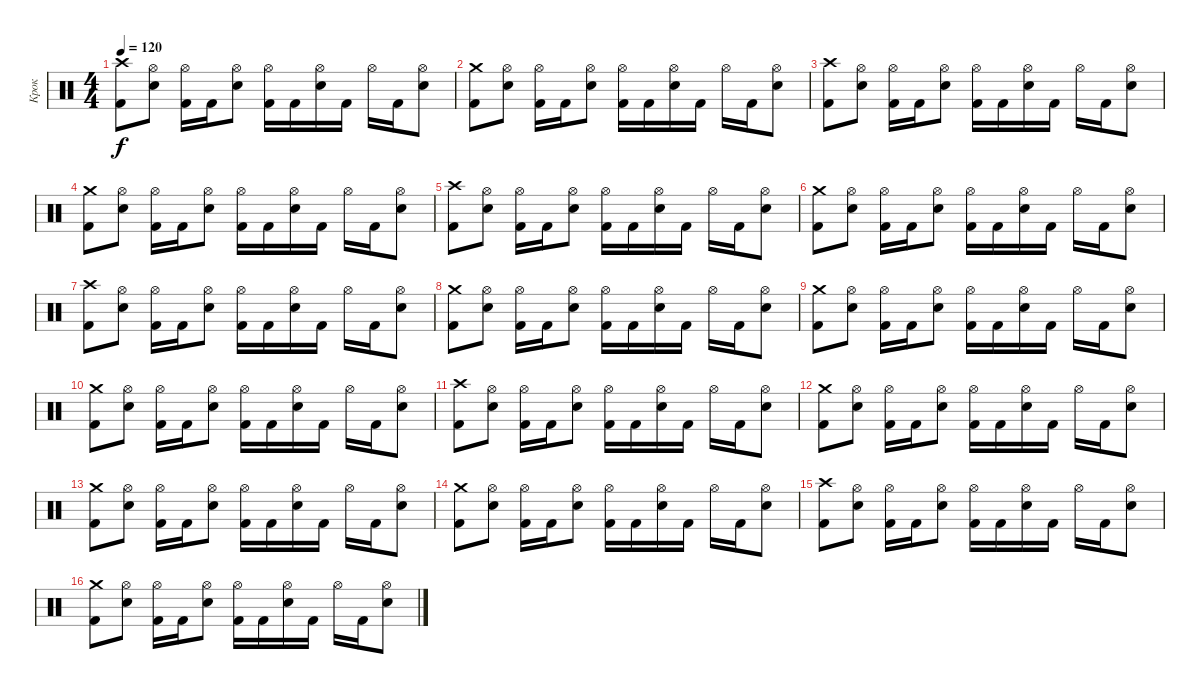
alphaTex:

\track ("Крок" "Крок") {instrument percussion}
\staff {score}
\articulation defaults
\ts (4 4)
\tempo 120
\clef neutral
\ks c
("Crash high (hit)" "Kick (hit) 2").8{dy f} ("Hi-Hat (open)" "Electric Snare (hit)").8 ("Hi-Hat (open)" "Kick (hit) 2").16 "Kick (hit) 2".16 ("Hi-Hat (open)" "Electric Snare (hit)").8 ("Hi-Hat (open)" "Kick (hit) 2").16 "Kick (hit) 2".16 ("Hi-Hat (open)" "Electric Snare (hit)").16 "Kick (hit) 2".16 "Hi-Hat (open)".16 "Kick (hit) 2".16 ("Hi-Hat (open)" "Electric Snare (hit)").8 |
("Crash medium (hit)" "Kick (hit) 2").8 ("Hi-Hat (open)" "Electric Snare (hit)").8 ("Hi-Hat (open)" "Kick (hit) 2").16 "Kick (hit) 2".16 ("Hi-Hat (open)" "Electric Snare (hit)").8 ("Hi-Hat (open)" "Kick (hit) 2").16 "Kick (hit) 2".16 ("Hi-Hat (open)" "Electric Snare (hit)").16 "Kick (hit) 2".16 "Hi-Hat (open)".16 "Kick (hit) 2".16 ("Hi-Hat (open)" "Electric Snare (hit)").8 |
("Crash high (hit)" "Kick (hit) 2").8 ("Hi-Hat (open)" "Electric Snare (hit)").8 ("Hi-Hat (open)" "Kick (hit) 2").16 "Kick (hit) 2".16 ("Hi-Hat (open)" "Electric Snare (hit)").8 ("Hi-Hat (open)" "Kick (hit) 2").16 "Kick (hit) 2".16 ("Hi-Hat (open)" "Electric Snare (hit)").16 "Kick (hit) 2".16 "Hi-Hat (open)".16 "Kick (hit) 2".16 ("Hi-Hat (open)" "Electric Snare (hit)").8 |
("Crash medium (hit)" "Kick (hit) 2").8 ("Hi-Hat (open)" "Electric Snare (hit)").8 ("Hi-Hat (open)" "Kick (hit) 2").16 "Kick (hit) 2".16 ("Hi-Hat (open)" "Electric Snare (hit)").8 ("Hi-Hat (open)" "Kick (hit) 2").16 "Kick (hit) 2".16 ("Hi-Hat (open)" "Electric Snare (hit)").16 "Kick (hit) 2".16 "Hi-Hat (open)".16 "Kick (hit) 2".16 ("Hi-Hat (open)" "Electric Snare (hit)").8 |
("Crash high (hit)" "Kick (hit) 2").8 ("Hi-Hat (open)" "Electric Snare (hit)").8 ("Hi-Hat (open)" "Kick (hit) 2").16 "Kick (hit) 2".16 ("Hi-Hat (open)" "Electric Snare (hit)").8 ("Hi-Hat (open)" "Kick (hit) 2").16 "Kick (hit) 2".16 ("Hi-Hat (open)" "Electric Snare (hit)").16 "Kick (hit) 2".16 "Hi-Hat (open)".16 "Kick (hit) 2".16 ("Hi-Hat (open)" "Electric Snare (hit)").8 |
("Crash medium (hit)" "Kick (hit) 2").8 ("Hi-Hat (open)" "Electric Snare (hit)").8 ("Hi-Hat (open)" "Kick (hit) 2").16 "Kick (hit) 2".16 ("Hi-Hat (open)" "Electric Snare (hit)").8 ("Hi-Hat (open)" "Kick (hit) 2").16 "Kick (hit) 2".16 ("Hi-Hat (open)" "Electric Snare (hit)").16 "Kick (hit) 2".16 "Hi-Hat (open)".16 "Kick (hit) 2".16 ("Hi-Hat (open)" "Electric Snare (hit)").8 |
("Crash high (hit)" "Kick (hit) 2").8 ("Hi-Hat (open)" "Electric Snare (hit)").8 ("Hi-Hat (open)" "Kick (hit) 2").16 "Kick (hit) 2".16 ("Hi-Hat (open)" "Electric Snare (hit)").8 ("Hi-Hat (open)" "Kick (hit) 2").16 "Kick (hit) 2".16 ("Hi-Hat (open)" "Electric Snare (hit)").16 "Kick (hit) 2".16 "Hi-Hat (open)".16 "Kick (hit) 2".16 ("Hi-Hat (open)" "Electric Snare (hit)").8 |
("Crash medium (hit)" "Kick (hit) 2").8 ("Hi-Hat (open)" "Electric Snare (hit)").8 ("Hi-Hat (open)" "Kick (hit) 2").16 "Kick (hit) 2".16 ("Hi-Hat (open)" "Electric Snare (hit)").8 ("Hi-Hat (open)" "Kick (hit) 2").16 "Kick (hit) 2".16 ("Hi-Hat (open)" "Electric Snare (hit)").16 "Kick (hit) 2".16 "Hi-Hat (open)".16 "Kick (hit) 2".16 ("Hi-Hat (open)" "Electric Snare (hit)").8 |
("Crash medium (hit)" "Kick (hit) 2").8 ("Hi-Hat (open)" "Electric Snare (hit)").8 ("Hi-Hat (open)" "Kick (hit) 2").16 "Kick (hit) 2".16 ("Hi-Hat (open)" "Electric Snare (hit)").8 ("Hi-Hat (open)" "Kick (hit) 2").16 "Kick (hit) 2".16 ("Hi-Hat (open)" "Electric Snare (hit)").16 "Kick (hit) 2".16 "Hi-Hat (open)".16 "Kick (hit) 2".16 ("Hi-Hat (open)" "Electric Snare (hit)").8 |
("Crash medium (hit)" "Kick (hit) 2").8 ("Hi-Hat (open)" "Electric Snare (hit)").8 ("Hi-Hat (open)" "Kick (hit) 2").16 "Kick (hit) 2".16 ("Hi-Hat (open)" "Electric Snare (hit)").8 ("Hi-Hat (open)" "Kick (hit) 2").16 "Kick (hit) 2".16 ("Hi-Hat (open)" "Electric Snare (hit)").16 "Kick (hit) 2".16 "Hi-Hat (open)".16 "Kick (hit) 2".16 ("Hi-Hat (open)" "Electric Snare (hit)").8 |
("Crash high (hit)" "Kick (hit) 2").8 ("Hi-Hat (open)" "Electric Snare (hit)").8 ("Hi-Hat (open)" "Kick (hit) 2").16 "Kick (hit) 2".16 ("Hi-Hat (open)" "Electric Snare (hit)").8 ("Hi-Hat (open)" "Kick (hit) 2").16 "Kick (hit) 2".16 ("Hi-Hat (open)" "Electric Snare (hit)").16 "Kick (hit) 2".16 "Hi-Hat (open)".16 "Kick (hit) 2".16 ("Hi-Hat (open)" "Electric Snare (hit)").8 |
("Crash medium (hit)" "Kick (hit) 2").8 ("Hi-Hat (open)" "Electric Snare (hit)").8 ("Hi-Hat (open)" "Kick (hit) 2").16 "Kick (hit) 2".16 ("Hi-Hat (open)" "Electric Snare (hit)").8 ("Hi-Hat (open)" "Kick (hit) 2").16 "Kick (hit) 2".16 ("Hi-Hat (open)" "Electric Snare (hit)").16 "Kick (hit) 2".16 "Hi-Hat (open)".16 "Kick (hit) 2".16 ("Hi-Hat (open)" "Electric Snare (hit)").8 |
("Crash medium (hit)" "Kick (hit) 2").8 ("Hi-Hat (open)" "Electric Snare (hit)").8 ("Hi-Hat (open)" "Kick (hit) 2").16 "Kick (hit) 2".16 ("Hi-Hat (open)" "Electric Snare (hit)").8 ("Hi-Hat (open)" "Kick (hit) 2").16 "Kick (hit) 2".16 ("Hi-Hat (open)" "Electric Snare (hit)").16 "Kick (hit) 2".16 "Hi-Hat (open)".16 "Kick (hit) 2".16 ("Hi-Hat (open)" "Electric Snare (hit)").8 |
("Crash medium (hit)" "Kick (hit) 2").8 ("Hi-Hat (open)" "Electric Snare (hit)").8 ("Hi-Hat (open)" "Kick (hit) 2").16 "Kick (hit) 2".16 ("Hi-Hat (open)" "Electric Snare (hit)").8 ("Hi-Hat (open)" "Kick (hit) 2").16 "Kick (hit) 2".16 ("Hi-Hat (open)" "Electric Snare (hit)").16 "Kick (hit) 2".16 "Hi-Hat (open)".16 "Kick (hit) 2".16 ("Hi-Hat (open)" "Electric Snare (hit)").8 |
("Crash high (hit)" "Kick (hit) 2").8 ("Hi-Hat (open)" "Electric Snare (hit)").8 ("Hi-Hat (open)" "Kick (hit) 2").16 "Kick (hit) 2".16 ("Hi-Hat (open)" "Electric Snare (hit)").8 ("Hi-Hat (open)" "Kick (hit) 2").16 "Kick (hit) 2".16 ("Hi-Hat (open)" "Electric Snare (hit)").16 "Kick (hit) 2".16 "Hi-Hat (open)".16 "Kick (hit) 2".16 ("Hi-Hat (open)" "Electric Snare (hit)").8 |
("Crash medium (hit)" "Kick (hit) 2").8 ("Hi-Hat (open)" "Electric Snare (hit)").8 ("Hi-Hat (open)" "Kick (hit) 2").16 "Kick (hit) 2".16 ("Hi-Hat (open)" "Electric Snare (hit)").8 ("Hi-Hat (open)" "Kick (hit) 2").16 "Kick (hit) 2".16 ("Hi-Hat (open)" "Electric Snare (hit)").16 "Kick (hit) 2".16 "Hi-Hat (open)".16 "Kick (hit) 2".16 ("Hi-Hat (open)" "Electric Snare (hit)").8
